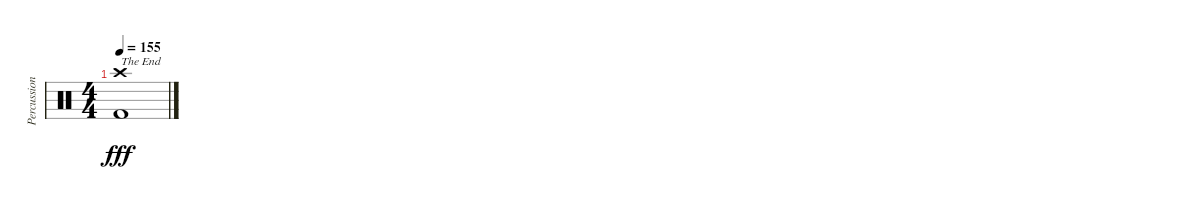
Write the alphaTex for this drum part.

\track ("Percussion" "Percussion") {instrument percussion}
\staff {score}
\articulation defaults
\ts (4 4)
\tempo 155
\clef neutral
\ks c
("Crash high (hit)" "Kick (hit) 2").1{txt "The End" dy fff}
